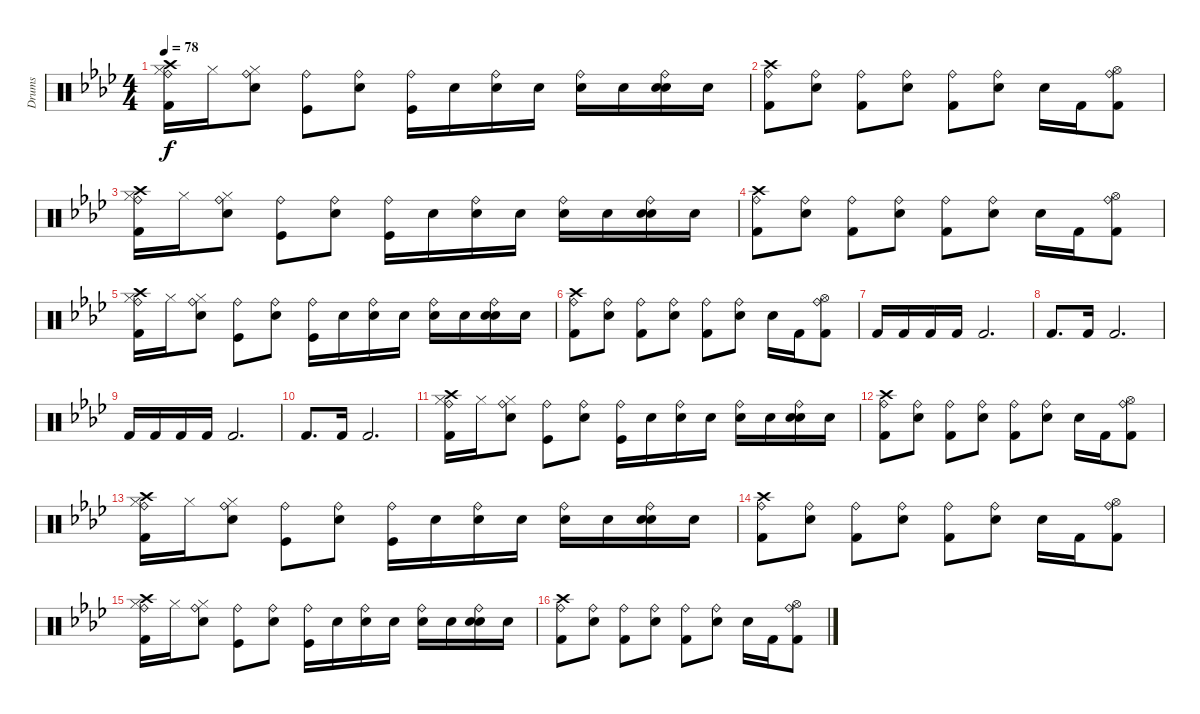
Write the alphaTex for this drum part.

\track ("Drums" "Drums") {instrument percussion}
\staff {score}
\articulation defaults
\ts (4 4)
\tempo 78
\clef neutral
\ks fminor
("Crash high (hit)" "Ride (bell)" "Hi-Hat (closed)" "Kick (hit) 2").16{dy f} "Hi-Hat (closed)".16 ("Ride (bell)" "Hi-Hat (closed)" "Snare (hit) 2").8 ("Ride (bell)" "Kick (hit)").8 ("Ride (bell)" "Snare (hit) 2").8 ("Ride (bell)" "Kick (hit)").16 "Snare (hit) 2".16 ("Ride (bell)" "Snare (hit) 2").16 "Snare (hit) 2".16 ("Ride (bell)" "Snare (hit) 2").16 "Snare (hit) 2".16 ("Ride (bell)" "Hand Clap (hit)" "Snare (hit) 2").16 "Snare (hit) 2".16 |
("Crash high (hit)" "Ride (bell)" "Kick (hit) 2").8 ("Ride (bell)" "Snare (hit) 2").8 ("Ride (bell)" "Kick (hit) 2").8 ("Ride (bell)" "Snare (hit) 2").8 ("Ride (bell)" "Kick (hit) 2").8 ("Ride (bell)" "Snare (hit) 2").8 "Snare (hit) 2".16 "Kick (hit) 2".16 ("Ride (bell)" "Hi-Hat (open)" "Kick (hit) 2").8 |
("Crash high (hit)" "Ride (bell)" "Hi-Hat (closed)" "Kick (hit) 2").16 "Hi-Hat (closed)".16 ("Ride (bell)" "Hi-Hat (closed)" "Snare (hit) 2").8 ("Ride (bell)" "Kick (hit)").8 ("Ride (bell)" "Snare (hit) 2").8 ("Ride (bell)" "Kick (hit)").16 "Snare (hit) 2".16 ("Ride (bell)" "Snare (hit) 2").16 "Snare (hit) 2".16 ("Ride (bell)" "Snare (hit) 2").16 "Snare (hit) 2".16 ("Ride (bell)" "Hand Clap (hit)" "Snare (hit) 2").16 "Snare (hit) 2".16 |
("Crash high (hit)" "Ride (bell)" "Kick (hit) 2").8 ("Ride (bell)" "Snare (hit) 2").8 ("Ride (bell)" "Kick (hit) 2").8 ("Ride (bell)" "Snare (hit) 2").8 ("Ride (bell)" "Kick (hit) 2").8 ("Ride (bell)" "Snare (hit) 2").8 "Snare (hit) 2".16 "Kick (hit) 2".16 ("Ride (bell)" "Hi-Hat (open)" "Kick (hit) 2").8 |
("Crash high (hit)" "Ride (bell)" "Hi-Hat (closed)" "Kick (hit) 2").16 "Hi-Hat (closed)".16 ("Ride (bell)" "Hi-Hat (closed)" "Snare (hit) 2").8 ("Ride (bell)" "Kick (hit)").8 ("Ride (bell)" "Snare (hit) 2").8 ("Ride (bell)" "Kick (hit)").16 "Snare (hit) 2".16 ("Ride (bell)" "Snare (hit) 2").16 "Snare (hit) 2".16 ("Ride (bell)" "Snare (hit) 2").16 "Snare (hit) 2".16 ("Ride (bell)" "Hand Clap (hit)" "Snare (hit) 2").16 "Snare (hit) 2".16 |
("Crash high (hit)" "Ride (bell)" "Kick (hit) 2").8 ("Ride (bell)" "Snare (hit) 2").8 ("Ride (bell)" "Kick (hit) 2").8 ("Ride (bell)" "Snare (hit) 2").8 ("Ride (bell)" "Kick (hit) 2").8 ("Ride (bell)" "Snare (hit) 2").8 "Snare (hit) 2".16 "Kick (hit) 2".16 ("Ride (bell)" "Hi-Hat (open)" "Kick (hit) 2").8 |
"Kick (hit) 2".16 "Kick (hit) 2".16 "Kick (hit) 2".16 "Kick (hit) 2".16 "Kick (hit) 2".2{d} |
"Kick (hit) 2".8{d} "Kick (hit) 2".16 "Kick (hit) 2".2{d} |
"Kick (hit) 2".16 "Kick (hit) 2".16 "Kick (hit) 2".16 "Kick (hit) 2".16 "Kick (hit) 2".2{d} |
"Kick (hit) 2".8{d} "Kick (hit) 2".16 "Kick (hit) 2".2{d} |
("Crash high (hit)" "Ride (bell)" "Hi-Hat (closed)" "Kick (hit) 2").16 "Hi-Hat (closed)".16 ("Ride (bell)" "Hi-Hat (closed)" "Snare (hit) 2").8 ("Ride (bell)" "Kick (hit)").8 ("Ride (bell)" "Snare (hit) 2").8 ("Ride (bell)" "Kick (hit)").16 "Snare (hit) 2".16 ("Ride (bell)" "Snare (hit) 2").16 "Snare (hit) 2".16 ("Ride (bell)" "Snare (hit) 2").16 "Snare (hit) 2".16 ("Ride (bell)" "Hand Clap (hit)" "Snare (hit) 2").16 "Snare (hit) 2".16 |
("Crash high (hit)" "Ride (bell)" "Kick (hit) 2").8 ("Ride (bell)" "Snare (hit) 2").8 ("Ride (bell)" "Kick (hit) 2").8 ("Ride (bell)" "Snare (hit) 2").8 ("Ride (bell)" "Kick (hit) 2").8 ("Ride (bell)" "Snare (hit) 2").8 "Snare (hit) 2".16 "Kick (hit) 2".16 ("Ride (bell)" "Hi-Hat (open)" "Kick (hit) 2").8 |
("Crash high (hit)" "Ride (bell)" "Hi-Hat (closed)" "Kick (hit) 2").16 "Hi-Hat (closed)".16 ("Ride (bell)" "Hi-Hat (closed)" "Snare (hit) 2").8 ("Ride (bell)" "Kick (hit)").8 ("Ride (bell)" "Snare (hit) 2").8 ("Ride (bell)" "Kick (hit)").16 "Snare (hit) 2".16 ("Ride (bell)" "Snare (hit) 2").16 "Snare (hit) 2".16 ("Ride (bell)" "Snare (hit) 2").16 "Snare (hit) 2".16 ("Ride (bell)" "Hand Clap (hit)" "Snare (hit) 2").16 "Snare (hit) 2".16 |
("Crash high (hit)" "Ride (bell)" "Kick (hit) 2").8 ("Ride (bell)" "Snare (hit) 2").8 ("Ride (bell)" "Kick (hit) 2").8 ("Ride (bell)" "Snare (hit) 2").8 ("Ride (bell)" "Kick (hit) 2").8 ("Ride (bell)" "Snare (hit) 2").8 "Snare (hit) 2".16 "Kick (hit) 2".16 ("Ride (bell)" "Hi-Hat (open)" "Kick (hit) 2").8 |
("Crash high (hit)" "Ride (bell)" "Hi-Hat (closed)" "Kick (hit) 2").16 "Hi-Hat (closed)".16 ("Ride (bell)" "Hi-Hat (closed)" "Snare (hit) 2").8 ("Ride (bell)" "Kick (hit)").8 ("Ride (bell)" "Snare (hit) 2").8 ("Ride (bell)" "Kick (hit)").16 "Snare (hit) 2".16 ("Ride (bell)" "Snare (hit) 2").16 "Snare (hit) 2".16 ("Ride (bell)" "Snare (hit) 2").16 "Snare (hit) 2".16 ("Ride (bell)" "Hand Clap (hit)" "Snare (hit) 2").16 "Snare (hit) 2".16 |
("Crash high (hit)" "Ride (bell)" "Kick (hit) 2").8 ("Ride (bell)" "Snare (hit) 2").8 ("Ride (bell)" "Kick (hit) 2").8 ("Ride (bell)" "Snare (hit) 2").8 ("Ride (bell)" "Kick (hit) 2").8 ("Ride (bell)" "Snare (hit) 2").8 "Snare (hit) 2".16 "Kick (hit) 2".16 ("Ride (bell)" "Hi-Hat (open)" "Kick (hit) 2").8
